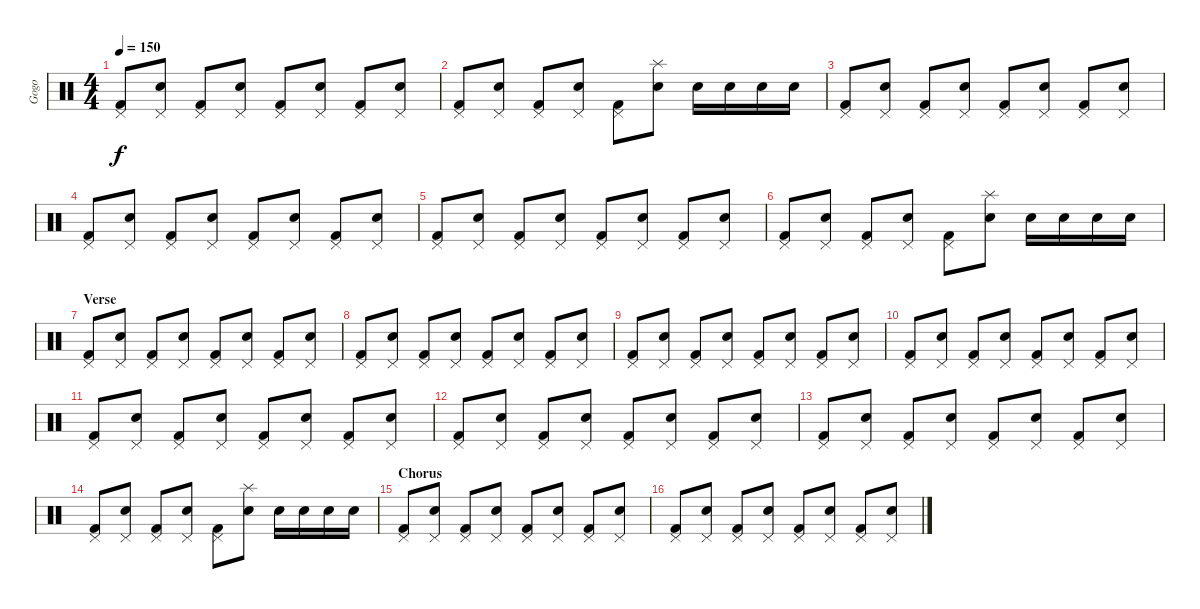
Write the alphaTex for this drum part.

\track ("Gogo" "Gogo") {instrument percussion}
\staff {score}
\articulation defaults
\ts (4 4)
\tempo 150
\clef neutral
\ks c
("Pedal Hi-Hat (hit)" "Kick (hit) 2").8{dy f} ("Pedal Hi-Hat (hit)" "Electric Snare (hit)").8 ("Pedal Hi-Hat (hit)" "Kick (hit) 2").8 ("Pedal Hi-Hat (hit)" "Electric Snare (hit)").8 ("Pedal Hi-Hat (hit)" "Kick (hit) 2").8 ("Pedal Hi-Hat (hit)" "Electric Snare (hit)").8 ("Pedal Hi-Hat (hit)" "Kick (hit) 2").8 ("Pedal Hi-Hat (hit)" "Electric Snare (hit)").8 |
("Pedal Hi-Hat (hit)" "Kick (hit) 2").8 ("Pedal Hi-Hat (hit)" "Electric Snare (hit)").8 ("Pedal Hi-Hat (hit)" "Kick (hit) 2").8 ("Pedal Hi-Hat (hit)" "Electric Snare (hit)").8 ("Pedal Hi-Hat (hit)" "Kick (hit) 2").8 ("Splash (hit)" "Electric Snare (hit)").8 "Electric Snare (hit)".16 "Electric Snare (hit)".16 "Electric Snare (hit)".16 "Electric Snare (hit)".16 |
("Pedal Hi-Hat (hit)" "Kick (hit) 2").8 ("Pedal Hi-Hat (hit)" "Electric Snare (hit)").8 ("Pedal Hi-Hat (hit)" "Kick (hit) 2").8 ("Pedal Hi-Hat (hit)" "Electric Snare (hit)").8 ("Pedal Hi-Hat (hit)" "Kick (hit) 2").8 ("Pedal Hi-Hat (hit)" "Electric Snare (hit)").8 ("Pedal Hi-Hat (hit)" "Kick (hit) 2").8 ("Pedal Hi-Hat (hit)" "Electric Snare (hit)").8 |
("Pedal Hi-Hat (hit)" "Kick (hit) 2").8 ("Pedal Hi-Hat (hit)" "Electric Snare (hit)").8 ("Pedal Hi-Hat (hit)" "Kick (hit) 2").8 ("Pedal Hi-Hat (hit)" "Electric Snare (hit)").8 ("Pedal Hi-Hat (hit)" "Kick (hit) 2").8 ("Pedal Hi-Hat (hit)" "Electric Snare (hit)").8 ("Pedal Hi-Hat (hit)" "Kick (hit) 2").8 ("Pedal Hi-Hat (hit)" "Electric Snare (hit)").8 |
("Pedal Hi-Hat (hit)" "Kick (hit) 2").8 ("Pedal Hi-Hat (hit)" "Electric Snare (hit)").8 ("Pedal Hi-Hat (hit)" "Kick (hit) 2").8 ("Pedal Hi-Hat (hit)" "Electric Snare (hit)").8 ("Pedal Hi-Hat (hit)" "Kick (hit) 2").8 ("Pedal Hi-Hat (hit)" "Electric Snare (hit)").8 ("Pedal Hi-Hat (hit)" "Kick (hit) 2").8 ("Pedal Hi-Hat (hit)" "Electric Snare (hit)").8 |
("Pedal Hi-Hat (hit)" "Kick (hit) 2").8 ("Pedal Hi-Hat (hit)" "Electric Snare (hit)").8 ("Pedal Hi-Hat (hit)" "Kick (hit) 2").8 ("Pedal Hi-Hat (hit)" "Electric Snare (hit)").8 ("Pedal Hi-Hat (hit)" "Kick (hit) 2").8 ("Splash (hit)" "Electric Snare (hit)").8 "Electric Snare (hit)".16 "Electric Snare (hit)".16 "Electric Snare (hit)".16 "Electric Snare (hit)".16 |
\section ("" "Verse")
("Pedal Hi-Hat (hit)" "Kick (hit) 2").8 ("Pedal Hi-Hat (hit)" "Electric Snare (hit)").8 ("Pedal Hi-Hat (hit)" "Kick (hit) 2").8 ("Pedal Hi-Hat (hit)" "Electric Snare (hit)").8 ("Pedal Hi-Hat (hit)" "Kick (hit) 2").8 ("Pedal Hi-Hat (hit)" "Electric Snare (hit)").8 ("Pedal Hi-Hat (hit)" "Kick (hit) 2").8 ("Pedal Hi-Hat (hit)" "Electric Snare (hit)").8 |
("Pedal Hi-Hat (hit)" "Kick (hit) 2").8 ("Pedal Hi-Hat (hit)" "Electric Snare (hit)").8 ("Pedal Hi-Hat (hit)" "Kick (hit) 2").8 ("Pedal Hi-Hat (hit)" "Electric Snare (hit)").8 ("Pedal Hi-Hat (hit)" "Kick (hit) 2").8 ("Pedal Hi-Hat (hit)" "Electric Snare (hit)").8 ("Pedal Hi-Hat (hit)" "Kick (hit) 2").8 ("Pedal Hi-Hat (hit)" "Electric Snare (hit)").8 |
("Pedal Hi-Hat (hit)" "Kick (hit) 2").8 ("Pedal Hi-Hat (hit)" "Electric Snare (hit)").8 ("Pedal Hi-Hat (hit)" "Kick (hit) 2").8 ("Pedal Hi-Hat (hit)" "Electric Snare (hit)").8 ("Pedal Hi-Hat (hit)" "Kick (hit) 2").8 ("Pedal Hi-Hat (hit)" "Electric Snare (hit)").8 ("Pedal Hi-Hat (hit)" "Kick (hit) 2").8 ("Pedal Hi-Hat (hit)" "Electric Snare (hit)").8 |
("Pedal Hi-Hat (hit)" "Kick (hit) 2").8 ("Pedal Hi-Hat (hit)" "Electric Snare (hit)").8 ("Pedal Hi-Hat (hit)" "Kick (hit) 2").8 ("Pedal Hi-Hat (hit)" "Electric Snare (hit)").8 ("Pedal Hi-Hat (hit)" "Kick (hit) 2").8 ("Pedal Hi-Hat (hit)" "Electric Snare (hit)").8 ("Pedal Hi-Hat (hit)" "Kick (hit) 2").8 ("Pedal Hi-Hat (hit)" "Electric Snare (hit)").8 |
("Pedal Hi-Hat (hit)" "Kick (hit) 2").8 ("Pedal Hi-Hat (hit)" "Electric Snare (hit)").8 ("Pedal Hi-Hat (hit)" "Kick (hit) 2").8 ("Pedal Hi-Hat (hit)" "Electric Snare (hit)").8 ("Pedal Hi-Hat (hit)" "Kick (hit) 2").8 ("Pedal Hi-Hat (hit)" "Electric Snare (hit)").8 ("Pedal Hi-Hat (hit)" "Kick (hit) 2").8 ("Pedal Hi-Hat (hit)" "Electric Snare (hit)").8 |
("Pedal Hi-Hat (hit)" "Kick (hit) 2").8 ("Pedal Hi-Hat (hit)" "Electric Snare (hit)").8 ("Pedal Hi-Hat (hit)" "Kick (hit) 2").8 ("Pedal Hi-Hat (hit)" "Electric Snare (hit)").8 ("Pedal Hi-Hat (hit)" "Kick (hit) 2").8 ("Pedal Hi-Hat (hit)" "Electric Snare (hit)").8 ("Pedal Hi-Hat (hit)" "Kick (hit) 2").8 ("Pedal Hi-Hat (hit)" "Electric Snare (hit)").8 |
("Pedal Hi-Hat (hit)" "Kick (hit) 2").8 ("Pedal Hi-Hat (hit)" "Electric Snare (hit)").8 ("Pedal Hi-Hat (hit)" "Kick (hit) 2").8 ("Pedal Hi-Hat (hit)" "Electric Snare (hit)").8 ("Pedal Hi-Hat (hit)" "Kick (hit) 2").8 ("Pedal Hi-Hat (hit)" "Electric Snare (hit)").8 ("Pedal Hi-Hat (hit)" "Kick (hit) 2").8 ("Pedal Hi-Hat (hit)" "Electric Snare (hit)").8 |
("Pedal Hi-Hat (hit)" "Kick (hit) 2").8 ("Pedal Hi-Hat (hit)" "Electric Snare (hit)").8 ("Pedal Hi-Hat (hit)" "Kick (hit) 2").8 ("Pedal Hi-Hat (hit)" "Electric Snare (hit)").8 ("Pedal Hi-Hat (hit)" "Kick (hit) 2").8 ("Splash (hit)" "Electric Snare (hit)").8 "Electric Snare (hit)".16 "Electric Snare (hit)".16 "Electric Snare (hit)".16 "Electric Snare (hit)".16 |
\section ("" "Chorus")
("Pedal Hi-Hat (hit)" "Kick (hit) 2").8 ("Pedal Hi-Hat (hit)" "Electric Snare (hit)").8 ("Pedal Hi-Hat (hit)" "Kick (hit) 2").8 ("Pedal Hi-Hat (hit)" "Electric Snare (hit)").8 ("Pedal Hi-Hat (hit)" "Kick (hit) 2").8 ("Pedal Hi-Hat (hit)" "Electric Snare (hit)").8 ("Pedal Hi-Hat (hit)" "Kick (hit) 2").8 ("Pedal Hi-Hat (hit)" "Electric Snare (hit)").8 |
("Pedal Hi-Hat (hit)" "Kick (hit) 2").8 ("Pedal Hi-Hat (hit)" "Electric Snare (hit)").8 ("Pedal Hi-Hat (hit)" "Kick (hit) 2").8 ("Pedal Hi-Hat (hit)" "Electric Snare (hit)").8 ("Pedal Hi-Hat (hit)" "Kick (hit) 2").8 ("Pedal Hi-Hat (hit)" "Electric Snare (hit)").8 ("Pedal Hi-Hat (hit)" "Kick (hit) 2").8 ("Pedal Hi-Hat (hit)" "Electric Snare (hit)").8
